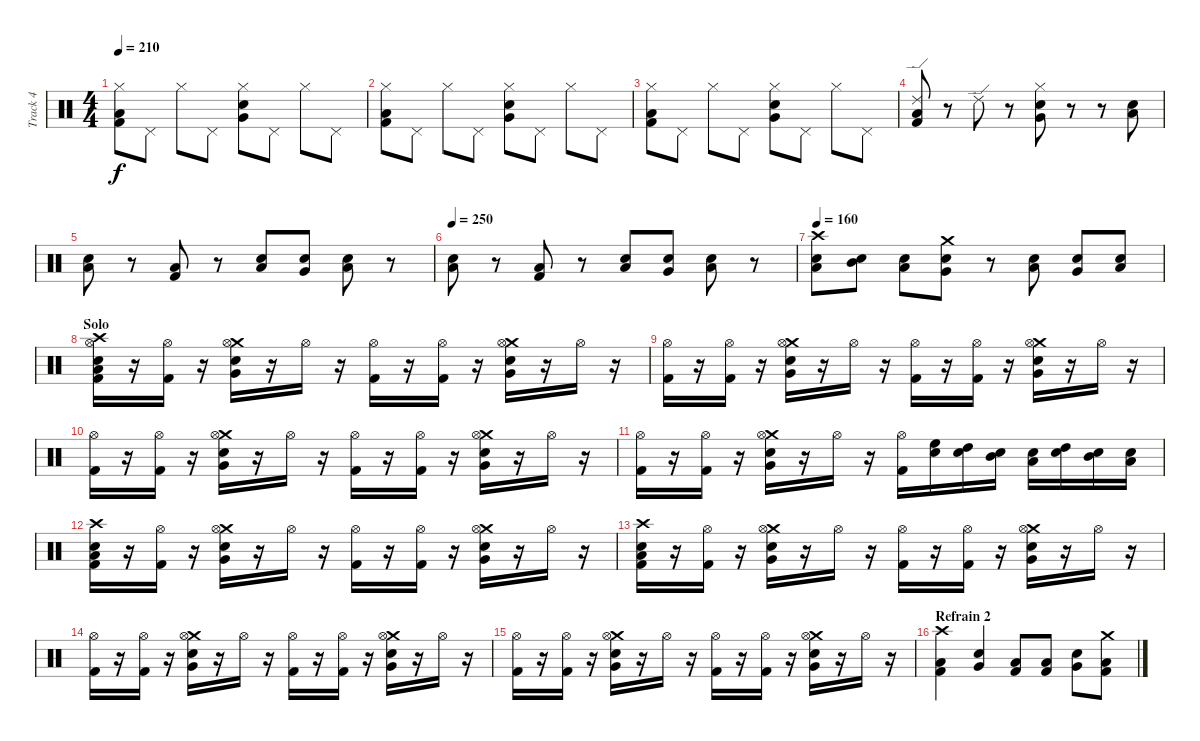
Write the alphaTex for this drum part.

\track ("Track 4" "Track 4") {instrument percussion}
\staff {score}
\articulation defaults
\ts (4 4)
\tempo 210
\clef neutral
\ks c
("Kick (hit) 2" "Low Tom (hit)" "Hi-Hat (closed)").8{dy f} "Pedal Hi-Hat (hit)".8 "Hi-Hat (closed)".8 "Pedal Hi-Hat (hit)".8 ("Electric Snare (hit)" "Very Low Tom (hit)" "Hi-Hat (closed)").8 "Pedal Hi-Hat (hit)".8 "Hi-Hat (closed)".8 "Pedal Hi-Hat (hit)".8 |
("Kick (hit) 2" "Low Tom (hit)" "Hi-Hat (closed)").8 "Pedal Hi-Hat (hit)".8 "Hi-Hat (closed)".8 "Pedal Hi-Hat (hit)".8 ("Electric Snare (hit)" "Very Low Tom (hit)" "Hi-Hat (closed)").8 "Pedal Hi-Hat (hit)".8 "Hi-Hat (closed)".8 "Pedal Hi-Hat (hit)".8 |
("Kick (hit) 2" "Low Tom (hit)" "Hi-Hat (closed)").8 "Pedal Hi-Hat (hit)".8 "Hi-Hat (closed)".8 "Pedal Hi-Hat (hit)".8 ("Electric Snare (hit)" "Very Low Tom (hit)" "Hi-Hat (closed)").8 "Pedal Hi-Hat (hit)".8 "Hi-Hat (closed)".8 "Pedal Hi-Hat (hit)".8 |
("Kick (hit) 2" "Low Tom (hit)" "Ride (edge) 2").8 r.8 "Ride (edge) 2".8 r.8 ("Electric Snare (hit)" "Very Low Tom (hit)" "Hi-Hat (closed)").8 r.8 r.8 ("Low Tom (hit)" "Electric Snare (hit)").8 |
("Electric Snare (hit)" "Low Tom (hit)").8 r.8 ("Low Floor Tom (hit)" "Kick (hit) 2").8 r.8 ("Electric Snare (hit)" "Low Tom (hit)").8 ("Electric Snare (hit)" "Very Low Tom (hit)").8 ("Electric Snare (hit)" "Low Floor Tom (hit)").8 r.8 |
\tempo 250
("Electric Snare (hit)" "Low Tom (hit)").8 r.8 ("Low Floor Tom (hit)" "Kick (hit) 2").8 r.8 ("Electric Snare (hit)" "Low Tom (hit)").8 ("Electric Snare (hit)" "Very Low Tom (hit)").8 ("Electric Snare (hit)" "Low Floor Tom (hit)").8 r.8 |
\tempo 160
("Low Tom (hit)" "Snare (hit) 2" "Crash high (hit)").8 ("Mid Tom (hit)" "Electric Snare (hit)").8 ("Low Tom (hit)" "Electric Snare (hit)").8 ("Very Low Tom (hit)" "Snare (hit) 2" "Crash medium (hit)").8 r.8 ("Low Tom (hit)" "Electric Snare (hit)").8 ("Very Low Tom (hit)" "Electric Snare (hit)").8 ("Low Floor Tom (hit)" "Snare (hit) 2").8 |
\section ("" "Solo")
("Kick (hit) 2" "Hi-Hat (open)" "Low Tom (hit)" "Snare (hit) 2" "Crash high (hit)").16 r.16 ("Kick (hit) 2" "Hi-Hat (open)").16 r.16 ("Very Low Tom (hit)" "Electric Snare (hit)" "Crash medium (hit)" "Hi-Hat (open)").16 r.16 "Hi-Hat (open)".16 r.16 ("Kick (hit) 2" "Hi-Hat (open)").16 r.16 ("Kick (hit) 2" "Hi-Hat (open)").16 r.16 ("Very Low Tom (hit)" "Electric Snare (hit)" "Crash medium (hit)" "Hi-Hat (open)").16 r.16 "Hi-Hat (open)".16 r.16 |
("Kick (hit) 2" "Hi-Hat (open)").16 r.16 ("Kick (hit) 2" "Hi-Hat (open)").16 r.16 ("Very Low Tom (hit)" "Electric Snare (hit)" "Crash medium (hit)" "Hi-Hat (open)").16 r.16 "Hi-Hat (open)".16 r.16 ("Kick (hit) 2" "Hi-Hat (open)").16 r.16 ("Kick (hit) 2" "Hi-Hat (open)").16 r.16 ("Very Low Tom (hit)" "Electric Snare (hit)" "Crash medium (hit)" "Hi-Hat (open)").16 r.16 "Hi-Hat (open)".16 r.16 |
("Kick (hit) 2" "Hi-Hat (open)").16 r.16 ("Kick (hit) 2" "Hi-Hat (open)").16 r.16 ("Very Low Tom (hit)" "Electric Snare (hit)" "Crash medium (hit)" "Hi-Hat (open)").16 r.16 "Hi-Hat (open)".16 r.16 ("Kick (hit) 2" "Hi-Hat (open)").16 r.16 ("Kick (hit) 2" "Hi-Hat (open)").16 r.16 ("Very Low Tom (hit)" "Electric Snare (hit)" "Crash medium (hit)" "Hi-Hat (open)").16 r.16 "Hi-Hat (open)".16 r.16 |
("Kick (hit) 2" "Hi-Hat (open)").16 r.16 ("Kick (hit) 2" "Hi-Hat (open)").16 r.16 ("Very Low Tom (hit)" "Electric Snare (hit)" "Crash medium (hit)" "Hi-Hat (open)").16 r.16 "Hi-Hat (open)".16 r.16 ("Kick (hit) 2" "Hi-Hat (open)").16 ("High Floor Tom (hit)" "Electric Snare (hit)").16 ("High Tom (hit)" "Electric Snare (hit)").16 ("Mid Tom (hit)" "Electric Snare (hit)").16 ("Low Tom (hit)" "Electric Snare (hit)").16 ("High Tom (hit)" "Electric Snare (hit)").16 ("Mid Tom (hit)" "Electric Snare (hit)").16 ("Low Tom (hit)" "Electric Snare (hit)").16 |
("Kick (hit) 2" "Low Floor Tom (hit)" "Crash high (hit)" "Snare (hit) 2").16 r.16 ("Kick (hit) 2" "Hi-Hat (open)").16 r.16 ("Very Low Tom (hit)" "Electric Snare (hit)" "Crash medium (hit)" "Hi-Hat (open)").16 r.16 "Hi-Hat (open)".16 r.16 ("Kick (hit) 2" "Hi-Hat (open)").16 r.16 ("Kick (hit) 2" "Hi-Hat (open)").16 r.16 ("Very Low Tom (hit)" "Electric Snare (hit)" "Crash medium (hit)" "Hi-Hat (open)").16 r.16 "Hi-Hat (open)".16 r.16 |
("Kick (hit) 2" "Low Floor Tom (hit)" "Crash high (hit)" "Snare (hit) 2").16 r.16 ("Kick (hit) 2" "Hi-Hat (open)").16 r.16 ("Very Low Tom (hit)" "Electric Snare (hit)" "Crash medium (hit)" "Hi-Hat (open)").16 r.16 "Hi-Hat (open)".16 r.16 ("Kick (hit) 2" "Hi-Hat (open)").16 r.16 ("Kick (hit) 2" "Hi-Hat (open)").16 r.16 ("Very Low Tom (hit)" "Electric Snare (hit)" "Crash medium (hit)" "Hi-Hat (open)").16 r.16 "Hi-Hat (open)".16 r.16 |
("Kick (hit) 2" "Hi-Hat (open)").16 r.16 ("Kick (hit) 2" "Hi-Hat (open)").16 r.16 ("Very Low Tom (hit)" "Electric Snare (hit)" "Crash medium (hit)" "Hi-Hat (open)").16 r.16 "Hi-Hat (open)".16 r.16 ("Kick (hit) 2" "Hi-Hat (open)").16 r.16 ("Kick (hit) 2" "Hi-Hat (open)").16 r.16 ("Very Low Tom (hit)" "Electric Snare (hit)" "Crash medium (hit)" "Hi-Hat (open)").16 r.16 "Hi-Hat (open)".16 r.16 |
("Kick (hit) 2" "Hi-Hat (open)").16 r.16 ("Kick (hit) 2" "Hi-Hat (open)").16 r.16 ("Very Low Tom (hit)" "Electric Snare (hit)" "Crash medium (hit)" "Hi-Hat (open)").16 r.16 "Hi-Hat (open)".16 r.16 ("Kick (hit) 2" "Hi-Hat (open)").16 r.16 ("Kick (hit) 2" "Hi-Hat (open)").16 r.16 ("Very Low Tom (hit)" "Electric Snare (hit)" "Crash medium (hit)" "Hi-Hat (open)").16 r.16 "Hi-Hat (open)".16 r.16 |
\section ("" "Refrain 2")
("Low Tom (hit)" "Crash high (hit)" "Kick (hit) 2").4 ("Electric Snare (hit)" "Very Low Tom (hit)").4 ("Low Tom (hit)" "Kick (hit) 2").8 ("Low Tom (hit)" "Kick (hit) 2").8 ("Electric Snare (hit)" "Very Low Tom (hit)").8 ("Low Tom (hit)" "Kick (hit) 2" "Crash medium (hit)").8
